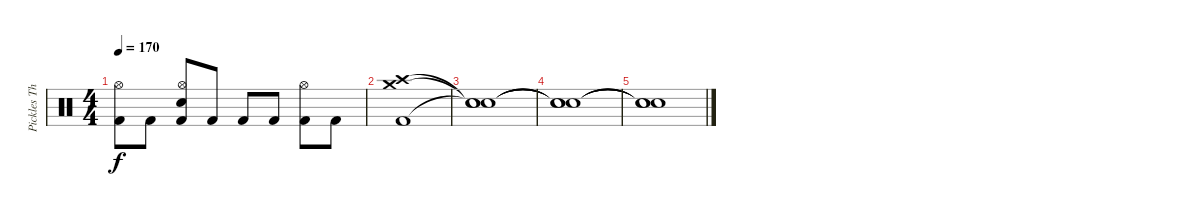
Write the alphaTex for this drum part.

\track ("Pickles The Drummer" "Pickles Th") {instrument percussion}
\staff {score}
\articulation defaults
\ts (4 4)
\tempo 170
\clef neutral
\ks c
("Kick (hit) 2" "Hi-Hat (open)").8{dy f} "Kick (hit) 2".8 ("Kick (hit) 2" "Hi-Hat (open)" "Snare (hit) 2").8 "Kick (hit) 2".8 "Kick (hit) 2".8 "Kick (hit) 2".8 ("Kick (hit) 2" "Hi-Hat (open)").8 "Kick (hit) 2".8 |
("Kick (hit) 2" "Crash medium (hit)" "Crash high (hit)").1 |
("Snare (hit)"{t} "Snare (hit)"{t} "Snare (hit)"{t}).1 |
("Snare (hit)"{t} "Snare (hit)"{t} "Snare (hit)"{t}).1 |
("Snare (hit)"{t} "Snare (hit)"{t} "Snare (hit)"{t}).1
